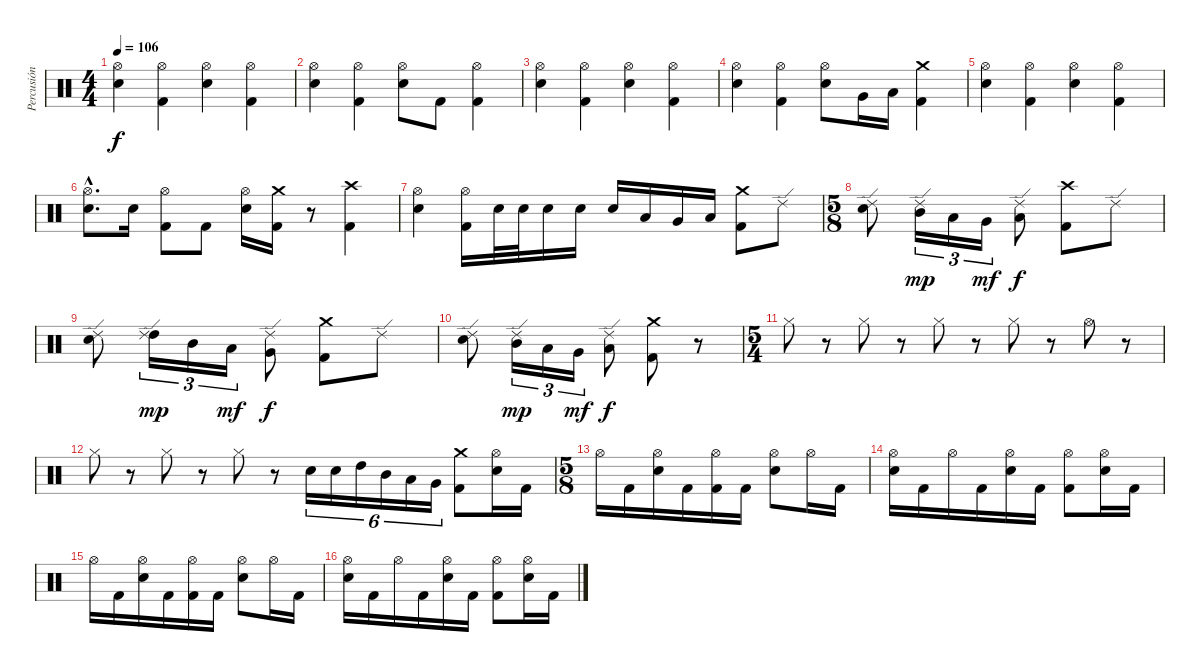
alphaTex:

\track ("Percusión" "Percusión") {instrument percussion}
\staff {score}
\articulation defaults
\ts (4 4)
\tempo 106
\clef neutral
\ks c
("Hi-Hat (open)" "Electric Snare (hit)").4{dy f} ("Hi-Hat (open)" "Kick (hit) 2").4 ("Hi-Hat (open)" "Electric Snare (hit)").4 ("Hi-Hat (open)" "Kick (hit) 2").4 |
("Hi-Hat (open)" "Electric Snare (hit)").4 ("Hi-Hat (open)" "Kick (hit) 2").4 ("Hi-Hat (open)" "Electric Snare (hit)").8 "Kick (hit) 2".8 ("Hi-Hat (open)" "Kick (hit) 2").4 |
("Hi-Hat (open)" "Electric Snare (hit)").4 ("Hi-Hat (open)" "Kick (hit) 2").4 ("Hi-Hat (open)" "Electric Snare (hit)").4 ("Hi-Hat (open)" "Kick (hit) 2").4 |
("Hi-Hat (open)" "Electric Snare (hit)").4 ("Hi-Hat (open)" "Kick (hit) 2").4 ("Hi-Hat (open)" "Electric Snare (hit)").8 "Very Low Tom (hit)".16 "Low Floor Tom (hit)".16 ("Crash medium (hit)" "Kick (hit) 2").4 |
("Hi-Hat (open)" "Electric Snare (hit)").4 ("Hi-Hat (open)" "Kick (hit) 2").4 ("Hi-Hat (open)" "Electric Snare (hit)").4 ("Hi-Hat (open)" "Kick (hit) 2").4 |
("Hi-Hat (open)" "Electric Snare (hit)"{hac}).8{d} "Electric Snare (hit)".16 ("Hi-Hat (open)" "Kick (hit) 2").8 "Kick (hit) 2".8 ("Hi-Hat (open)" "Electric Snare (hit)").16 ("Crash medium (hit)" "Kick (hit) 2").16 r.8 ("Crash high (hit)" "Kick (hit) 2").4 |
("Hi-Hat (open)" "Electric Snare (hit)").4 ("Hi-Hat (open)" "Kick (hit) 2").16 "Electric Snare (hit)".32 "Electric Snare (hit)".32 "Electric Snare (hit)".16 "Electric Snare (hit)".16 "Electric Snare (hit)".16 "Low Tom (hit)".16 "Very Low Tom (hit)".16 "Low Floor Tom (hit)".16 ("Crash medium (hit)" "Kick (hit) 2").8 "Ride (edge) 2".8 |
\ts (5 8)
("Ride (edge) 2" "Electric Snare (hit)").8 ("Ride (edge) 2" "Mid Tom (hit)").16{tu (3 2) dy mp} "Low Tom (hit)".16{tu (3 2)} "Very Low Tom (hit)".16{tu (3 2) dy mf} ("Ride (edge) 2" "Low Floor Tom (hit)").8{dy f} ("Crash high (hit)" "Kick (hit) 2").8 "Ride (edge) 2".8 |
("Ride (edge) 2" "Electric Snare (hit)").8 ("High Tom (hit)" "Ride (edge) 2").16{tu (3 2) dy mp} "Mid Tom (hit)".16{tu (3 2)} "Low Tom (hit)".16{tu (3 2) dy mf} ("Very Low Tom (hit)" "Ride (edge) 2").8{dy f} ("Crash medium (hit)" "Kick (hit) 2").8 "Ride (edge) 2".8 |
("Ride (edge) 2" "Electric Snare (hit)").8 ("Ride (edge) 2" "Mid Tom (hit)").16{tu (3 2) dy mp} "Low Tom (hit)".16{tu (3 2)} "Very Low Tom (hit)".16{tu (3 2) dy mf} ("Ride (edge) 2" "Low Floor Tom (hit)").8{dy f} ("Crash medium (hit)" "Kick (hit) 2").8 r.8 |
\ts (5 4)
"Hi-Hat (closed)".8 r.8 "Hi-Hat (closed)".8 r.8 "Hi-Hat (closed)".8 r.8 "Hi-Hat (closed)".8 r.8 "Hi-Hat (open)".8 r.8 |
"Hi-Hat (closed)".8 r.8 "Hi-Hat (closed)".8 r.8 "Hi-Hat (closed)".8 r.8 "Electric Snare (hit)".16{tu (6 4)} "Electric Snare (hit)".16{tu (6 4)} "High Tom (hit)".16{tu (6 4)} "Mid Tom (hit)".16{tu (6 4)} "Low Tom (hit)".16{tu (6 4)} "Very Low Tom (hit)".16{tu (6 4)} ("Kick (hit) 2" "Crash medium (hit)").8 ("Electric Snare (hit)" "Hi-Hat (open)").16 "Kick (hit) 2".16 |
\ts (5 8)
"Hi-Hat (open)".16 "Kick (hit) 2".16 ("Electric Snare (hit)" "Hi-Hat (open)").16 "Kick (hit) 2".16 ("Kick (hit) 2" "Hi-Hat (open)").16 "Kick (hit) 2".16 ("Electric Snare (hit)" "Hi-Hat (open)").8 "Hi-Hat (open)".16 "Kick (hit) 2".16 |
("Electric Snare (hit)" "Hi-Hat (open)").16 "Kick (hit) 2".16 "Hi-Hat (open)".16 "Kick (hit) 2".16 ("Electric Snare (hit)" "Hi-Hat (open)").16 "Kick (hit) 2".16 ("Kick (hit) 2" "Hi-Hat (open)").8 ("Electric Snare (hit)" "Hi-Hat (open)").16 "Kick (hit) 2".16 |
"Hi-Hat (open)".16 "Kick (hit) 2".16 ("Electric Snare (hit)" "Hi-Hat (open)").16 "Kick (hit) 2".16 ("Kick (hit) 2" "Hi-Hat (open)").16 "Kick (hit) 2".16 ("Electric Snare (hit)" "Hi-Hat (open)").8 "Hi-Hat (open)".16 "Kick (hit) 2".16 |
("Electric Snare (hit)" "Hi-Hat (open)").16 "Kick (hit) 2".16 "Hi-Hat (open)".16 "Kick (hit) 2".16 ("Electric Snare (hit)" "Hi-Hat (open)").16 "Kick (hit) 2".16 ("Kick (hit) 2" "Hi-Hat (open)").8 ("Electric Snare (hit)" "Hi-Hat (open)").16 "Kick (hit) 2".16
